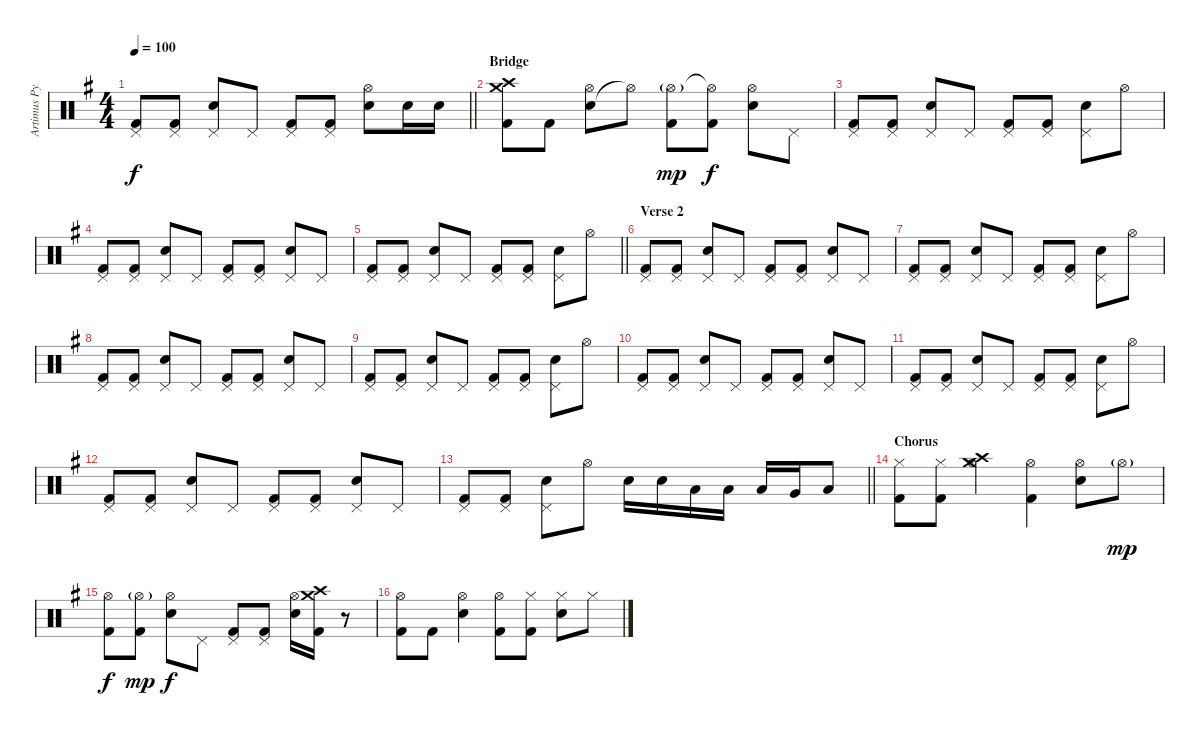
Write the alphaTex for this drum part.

\track ("Artimus Pyle" "Artimus Py") {instrument percussion}
\staff {score}
\articulation defaults
\ts (4 4)
\tempo 100
\clef neutral
\barLineRight lightlight
\ks g
("Pedal Hi-Hat (hit)" "Kick (hit) 2").8{dy f} ("Pedal Hi-Hat (hit)" "Kick (hit) 2").8 ("Snare (hit) 2" "Pedal Hi-Hat (hit)").8 "Pedal Hi-Hat (hit)".8 ("Pedal Hi-Hat (hit)" "Kick (hit) 2").8 ("Pedal Hi-Hat (hit)" "Kick (hit) 2").8 ("Snare (hit) 2" "Hi-Hat (open)").8 "Snare (hit) 2".16 "Snare (hit) 2".16 |
\section ("" "Bridge")
("Crash medium (hit)" "Crash high (hit)" "Kick (hit) 2").8 "Kick (hit) 2".8 ("Snare (hit) 2" "Hi-Hat (open)").8 "Hi-Hat (open)"{t}.8 ("Hi-Hat (open)"{g} "Kick (hit) 2").8{dy mp} ("Hi-Hat (open)"{t} "Kick (hit) 2").8{dy f} ("Snare (hit) 2" "Hi-Hat (open)").8 "Pedal Hi-Hat (hit)".8 |
("Pedal Hi-Hat (hit)" "Kick (hit) 2").8 ("Pedal Hi-Hat (hit)" "Kick (hit) 2").8 ("Snare (hit) 2" "Pedal Hi-Hat (hit)").8 "Pedal Hi-Hat (hit)".8 ("Pedal Hi-Hat (hit)" "Kick (hit) 2").8 ("Pedal Hi-Hat (hit)" "Kick (hit) 2").8 ("Snare (hit) 2" "Pedal Hi-Hat (hit)").8 "Hi-Hat (open)".8 |
("Pedal Hi-Hat (hit)" "Kick (hit) 2").8 ("Pedal Hi-Hat (hit)" "Kick (hit) 2").8 ("Snare (hit) 2" "Pedal Hi-Hat (hit)").8 "Pedal Hi-Hat (hit)".8 ("Pedal Hi-Hat (hit)" "Kick (hit) 2").8 ("Pedal Hi-Hat (hit)" "Kick (hit) 2").8 ("Snare (hit) 2" "Pedal Hi-Hat (hit)").8 "Pedal Hi-Hat (hit)".8 |
\barLineRight lightlight
("Pedal Hi-Hat (hit)" "Kick (hit) 2").8 ("Pedal Hi-Hat (hit)" "Kick (hit) 2").8 ("Snare (hit) 2" "Pedal Hi-Hat (hit)").8 "Pedal Hi-Hat (hit)".8 ("Pedal Hi-Hat (hit)" "Kick (hit) 2").8 ("Pedal Hi-Hat (hit)" "Kick (hit) 2").8 ("Snare (hit) 2" "Pedal Hi-Hat (hit)").8 "Hi-Hat (open)".8 |
\section ("" "Verse 2")
("Pedal Hi-Hat (hit)" "Kick (hit) 2").8 ("Pedal Hi-Hat (hit)" "Kick (hit) 2").8 ("Snare (hit) 2" "Pedal Hi-Hat (hit)").8 "Pedal Hi-Hat (hit)".8 ("Pedal Hi-Hat (hit)" "Kick (hit) 2").8 ("Pedal Hi-Hat (hit)" "Kick (hit) 2").8 ("Snare (hit) 2" "Pedal Hi-Hat (hit)").8 "Pedal Hi-Hat (hit)".8 |
("Pedal Hi-Hat (hit)" "Kick (hit) 2").8 ("Pedal Hi-Hat (hit)" "Kick (hit) 2").8 ("Snare (hit) 2" "Pedal Hi-Hat (hit)").8 "Pedal Hi-Hat (hit)".8 ("Pedal Hi-Hat (hit)" "Kick (hit) 2").8 ("Pedal Hi-Hat (hit)" "Kick (hit) 2").8 ("Snare (hit) 2" "Pedal Hi-Hat (hit)").8 "Hi-Hat (open)".8 |
("Pedal Hi-Hat (hit)" "Kick (hit) 2").8 ("Pedal Hi-Hat (hit)" "Kick (hit) 2").8 ("Snare (hit) 2" "Pedal Hi-Hat (hit)").8 "Pedal Hi-Hat (hit)".8 ("Pedal Hi-Hat (hit)" "Kick (hit) 2").8 ("Pedal Hi-Hat (hit)" "Kick (hit) 2").8 ("Snare (hit) 2" "Pedal Hi-Hat (hit)").8 "Pedal Hi-Hat (hit)".8 |
("Pedal Hi-Hat (hit)" "Kick (hit) 2").8 ("Pedal Hi-Hat (hit)" "Kick (hit) 2").8 ("Snare (hit) 2" "Pedal Hi-Hat (hit)").8 "Pedal Hi-Hat (hit)".8 ("Pedal Hi-Hat (hit)" "Kick (hit) 2").8 ("Pedal Hi-Hat (hit)" "Kick (hit) 2").8 ("Snare (hit) 2" "Pedal Hi-Hat (hit)").8 "Hi-Hat (open)".8 |
("Pedal Hi-Hat (hit)" "Kick (hit) 2").8 ("Pedal Hi-Hat (hit)" "Kick (hit) 2").8 ("Snare (hit) 2" "Pedal Hi-Hat (hit)").8 "Pedal Hi-Hat (hit)".8 ("Pedal Hi-Hat (hit)" "Kick (hit) 2").8 ("Pedal Hi-Hat (hit)" "Kick (hit) 2").8 ("Snare (hit) 2" "Pedal Hi-Hat (hit)").8 "Pedal Hi-Hat (hit)".8 |
("Pedal Hi-Hat (hit)" "Kick (hit) 2").8 ("Pedal Hi-Hat (hit)" "Kick (hit) 2").8 ("Snare (hit) 2" "Pedal Hi-Hat (hit)").8 "Pedal Hi-Hat (hit)".8 ("Pedal Hi-Hat (hit)" "Kick (hit) 2").8 ("Pedal Hi-Hat (hit)" "Kick (hit) 2").8 ("Snare (hit) 2" "Pedal Hi-Hat (hit)").8 "Hi-Hat (open)".8 |
("Pedal Hi-Hat (hit)" "Kick (hit) 2").8 ("Pedal Hi-Hat (hit)" "Kick (hit) 2").8 ("Snare (hit) 2" "Pedal Hi-Hat (hit)").8 "Pedal Hi-Hat (hit)".8 ("Pedal Hi-Hat (hit)" "Kick (hit) 2").8 ("Pedal Hi-Hat (hit)" "Kick (hit) 2").8 ("Snare (hit) 2" "Pedal Hi-Hat (hit)").8 "Pedal Hi-Hat (hit)".8 |
\barLineRight lightlight
("Pedal Hi-Hat (hit)" "Kick (hit) 2").8 ("Pedal Hi-Hat (hit)" "Kick (hit) 2").8 ("Snare (hit) 2" "Pedal Hi-Hat (hit)").8 "Hi-Hat (open)".8 "Snare (hit) 2".16 "Snare (hit) 2".16 "Low Tom (hit)".16 "Low Tom (hit)".16 "Low Tom (hit)".16 "Very Low Tom (hit)".16 "Low Floor Tom (hit)".8 |
\section ("" "Chorus")
("Hi-Hat (closed)" "Kick (hit) 2").8 ("Hi-Hat (closed)" "Kick (hit) 2").8 ("Crash medium (hit)" "Crash high (hit)" "Hi-Hat (open)").4 ("Hi-Hat (open)" "Kick (hit) 2").4 ("Snare (hit) 2" "Hi-Hat (open)").8 "Hi-Hat (open)"{g}.8{dy mp} |
("Hi-Hat (open)" "Kick (hit) 2").8{dy f} ("Hi-Hat (open)"{g} "Kick (hit) 2").8{dy mp} ("Snare (hit) 2" "Hi-Hat (open)").8{dy f} "Pedal Hi-Hat (hit)".8 ("Pedal Hi-Hat (hit)" "Kick (hit) 2").8 ("Pedal Hi-Hat (hit)" "Kick (hit) 2").8 ("Snare (hit) 2" "Hi-Hat (open)").16 ("Crash medium (hit)" "Crash high (hit)" "Kick (hit) 2").16 r.8 |
("Hi-Hat (open)" "Kick (hit) 2").8 "Kick (hit) 2".8 ("Snare (hit) 2" "Hi-Hat (open)").4 ("Hi-Hat (open)" "Kick (hit) 2").8 ("Hi-Hat (closed)" "Kick (hit) 2").8 ("Snare (hit) 2" "Hi-Hat (closed)").8 "Hi-Hat (closed)".8
